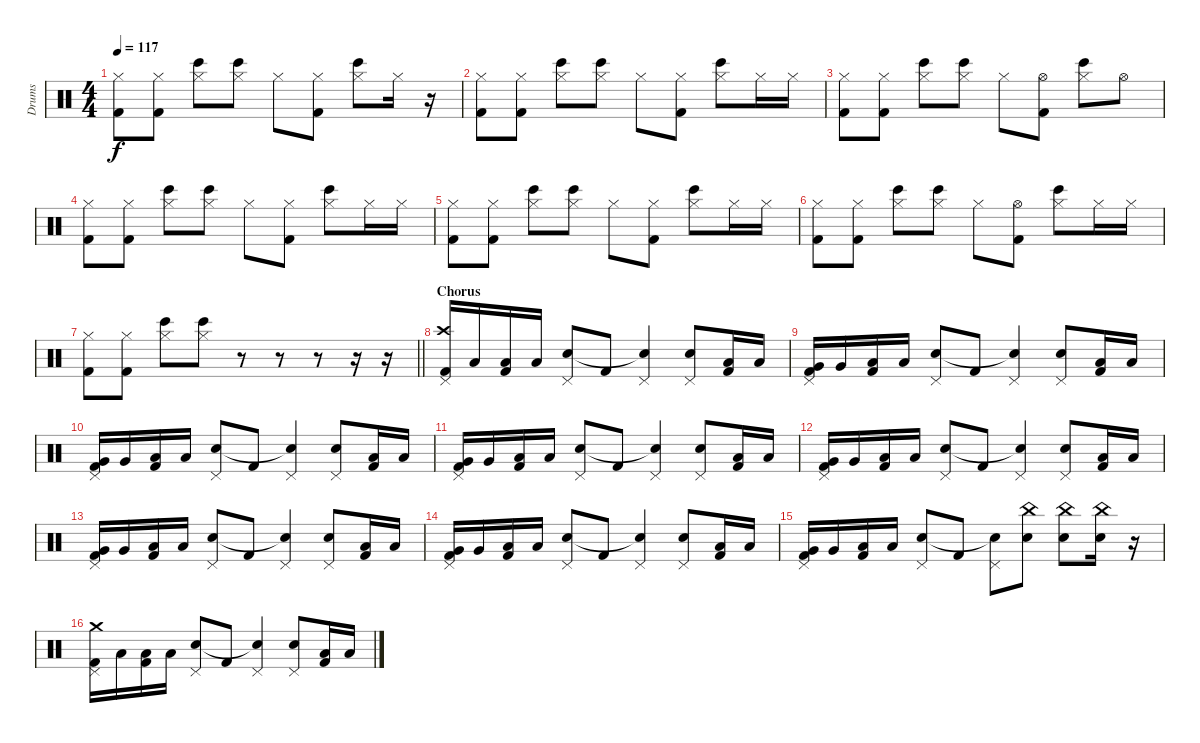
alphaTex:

\track ("Drums" "Drums") {instrument percussion}
\staff {score}
\articulation defaults
\ts (4 4)
\tempo 117
\clef neutral
\ks c
("Hi-Hat (closed)" "Kick (hit) 2").8{dy f} ("Hi-Hat (closed)" "Kick (hit) 2").8 ("Hi-Hat (closed)" "Bongo High (hit)").8 ("Hi-Hat (closed)" "Bongo High (hit)").8 "Hi-Hat (closed)".8 ("Hi-Hat (closed)" "Kick (hit) 2").8 ("Hi-Hat (closed)" "Bongo High (hit)").8 "Hi-Hat (closed)".16 r.16 |
("Hi-Hat (closed)" "Kick (hit) 2").8 ("Hi-Hat (closed)" "Kick (hit) 2").8 ("Hi-Hat (closed)" "Bongo High (hit)").8 ("Hi-Hat (closed)" "Bongo High (hit)").8 "Hi-Hat (closed)".8 ("Hi-Hat (closed)" "Kick (hit) 2").8 ("Hi-Hat (closed)" "Bongo High (hit)").8 "Hi-Hat (closed)".16 "Hi-Hat (closed)".16 |
("Hi-Hat (closed)" "Kick (hit) 2").8 ("Hi-Hat (closed)" "Kick (hit) 2").8 ("Hi-Hat (closed)" "Bongo High (hit)").8 ("Hi-Hat (closed)" "Bongo High (hit)").8 "Hi-Hat (closed)".8 ("Hi-Hat (open)" "Kick (hit) 2").8 ("Hi-Hat (closed)" "Bongo High (hit)").8 "Hi-Hat (open)".8 |
("Hi-Hat (closed)" "Kick (hit) 2").8 ("Hi-Hat (closed)" "Kick (hit) 2").8 ("Hi-Hat (closed)" "Bongo High (hit)").8 ("Hi-Hat (closed)" "Bongo High (hit)").8 "Hi-Hat (closed)".8 ("Hi-Hat (closed)" "Kick (hit) 2").8 ("Hi-Hat (closed)" "Bongo High (hit)").8 "Hi-Hat (closed)".16 "Hi-Hat (closed)".16 |
("Hi-Hat (closed)" "Kick (hit) 2").8 ("Hi-Hat (closed)" "Kick (hit) 2").8 ("Hi-Hat (closed)" "Bongo High (hit)").8 ("Hi-Hat (closed)" "Bongo High (hit)").8 "Hi-Hat (closed)".8 ("Hi-Hat (closed)" "Kick (hit) 2").8 ("Hi-Hat (closed)" "Bongo High (hit)").8 "Hi-Hat (closed)".16 "Hi-Hat (closed)".16 |
("Hi-Hat (closed)" "Kick (hit) 2").8 ("Hi-Hat (closed)" "Kick (hit) 2").8 ("Hi-Hat (closed)" "Bongo High (hit)").8 ("Hi-Hat (closed)" "Bongo High (hit)").8 "Hi-Hat (closed)".8 ("Hi-Hat (open)" "Kick (hit) 2").8 ("Hi-Hat (closed)" "Bongo High (hit)").8 "Hi-Hat (closed)".16 "Hi-Hat (closed)".16 |
\barLineRight lightlight
("Hi-Hat (closed)" "Kick (hit) 2").8 ("Hi-Hat (closed)" "Kick (hit) 2").8 ("Hi-Hat (closed)" "Bongo High (hit)").8 ("Hi-Hat (closed)" "Bongo High (hit)").8 r.8 r.8 r.8 r.16 r.16 |
\section ("" "Chorus")
("Crash high (hit)" "Pedal Hi-Hat (hit)" "Kick (hit) 2").16 "Low Tom (hit)".16 ("Low Floor Tom (hit)" "Kick (hit) 2").16 "Low Floor Tom (hit)".16 ("Pedal Hi-Hat (hit)" "Snare (hit) 2").8 "Kick (hit) 2".8 ("Pedal Hi-Hat (hit)" "Snare (hit)"{t}).4 ("Pedal Hi-Hat (hit)" "Snare (hit) 2").8 ("Low Tom (hit)" "Kick (hit) 2").16 "Low Tom (hit)".16 |
("Pedal Hi-Hat (hit)" "Very Low Tom (hit)" "Kick (hit) 2").16 "Very Low Tom (hit)".16 ("Low Floor Tom (hit)" "Kick (hit) 2").16 "Low Floor Tom (hit)".16 ("Pedal Hi-Hat (hit)" "Snare (hit) 2").8 "Kick (hit) 2".8 ("Pedal Hi-Hat (hit)" "Snare (hit)"{t}).4 ("Pedal Hi-Hat (hit)" "Snare (hit) 2").8 ("Low Tom (hit)" "Kick (hit) 2").16 "Low Tom (hit)".16 |
("Pedal Hi-Hat (hit)" "Very Low Tom (hit)" "Kick (hit) 2").16 "Very Low Tom (hit)".16 ("Low Floor Tom (hit)" "Kick (hit) 2").16 "Low Floor Tom (hit)".16 ("Pedal Hi-Hat (hit)" "Snare (hit) 2").8 "Kick (hit) 2".8 ("Pedal Hi-Hat (hit)" "Snare (hit)"{t}).4 ("Pedal Hi-Hat (hit)" "Snare (hit) 2").8 ("Low Tom (hit)" "Kick (hit) 2").16 "Low Tom (hit)".16 |
("Pedal Hi-Hat (hit)" "Very Low Tom (hit)" "Kick (hit) 2").16 "Very Low Tom (hit)".16 ("Low Floor Tom (hit)" "Kick (hit) 2").16 "Low Floor Tom (hit)".16 ("Pedal Hi-Hat (hit)" "Snare (hit) 2").8 "Kick (hit) 2".8 ("Pedal Hi-Hat (hit)" "Snare (hit)"{t}).4 ("Pedal Hi-Hat (hit)" "Snare (hit) 2").8 ("Low Tom (hit)" "Kick (hit) 2").16 "Low Tom (hit)".16 |
("Pedal Hi-Hat (hit)" "Very Low Tom (hit)" "Kick (hit) 2").16 "Very Low Tom (hit)".16 ("Low Floor Tom (hit)" "Kick (hit) 2").16 "Low Floor Tom (hit)".16 ("Pedal Hi-Hat (hit)" "Snare (hit) 2").8 "Kick (hit) 2".8 ("Pedal Hi-Hat (hit)" "Snare (hit)"{t}).4 ("Pedal Hi-Hat (hit)" "Snare (hit) 2").8 ("Low Tom (hit)" "Kick (hit) 2").16 "Low Tom (hit)".16 |
("Pedal Hi-Hat (hit)" "Very Low Tom (hit)" "Kick (hit) 2").16 "Very Low Tom (hit)".16 ("Low Floor Tom (hit)" "Kick (hit) 2").16 "Low Floor Tom (hit)".16 ("Pedal Hi-Hat (hit)" "Snare (hit) 2").8 "Kick (hit) 2".8 ("Pedal Hi-Hat (hit)" "Snare (hit)"{t}).4 ("Pedal Hi-Hat (hit)" "Snare (hit) 2").8 ("Low Tom (hit)" "Kick (hit) 2").16 "Low Tom (hit)".16 |
("Pedal Hi-Hat (hit)" "Very Low Tom (hit)" "Kick (hit) 2").16 "Very Low Tom (hit)".16 ("Low Floor Tom (hit)" "Kick (hit) 2").16 "Low Floor Tom (hit)".16 ("Pedal Hi-Hat (hit)" "Snare (hit) 2").8 "Kick (hit) 2".8 ("Pedal Hi-Hat (hit)" "Snare (hit)"{t}).4 ("Pedal Hi-Hat (hit)" "Snare (hit) 2").8 ("Low Tom (hit)" "Kick (hit) 2").16 "Low Tom (hit)".16 |
("Pedal Hi-Hat (hit)" "Very Low Tom (hit)" "Kick (hit) 2").16 "Very Low Tom (hit)".16 ("Low Floor Tom (hit)" "Kick (hit) 2").16 "Low Floor Tom (hit)".16 ("Pedal Hi-Hat (hit)" "Snare (hit) 2").8 "Kick (hit) 2".8 ("Pedal Hi-Hat (hit)" "Snare (hit)"{t}).8 ("China (hit)" "Snare (hit) 2").8 ("China (hit)" "Snare (hit) 2").8 ("China (hit)" "Snare (hit) 2").16 r.16 |
("Crash medium (hit)" "Pedal Hi-Hat (hit)" "Kick (hit) 2").16 "Low Tom (hit)".16 ("Low Floor Tom (hit)" "Kick (hit) 2").16 "Low Floor Tom (hit)".16 ("Pedal Hi-Hat (hit)" "Snare (hit) 2").8 "Kick (hit) 2".8 ("Pedal Hi-Hat (hit)" "Snare (hit)"{t}).4 ("Pedal Hi-Hat (hit)" "Snare (hit) 2").8 ("Low Tom (hit)" "Kick (hit) 2").16 "Low Tom (hit)".16
